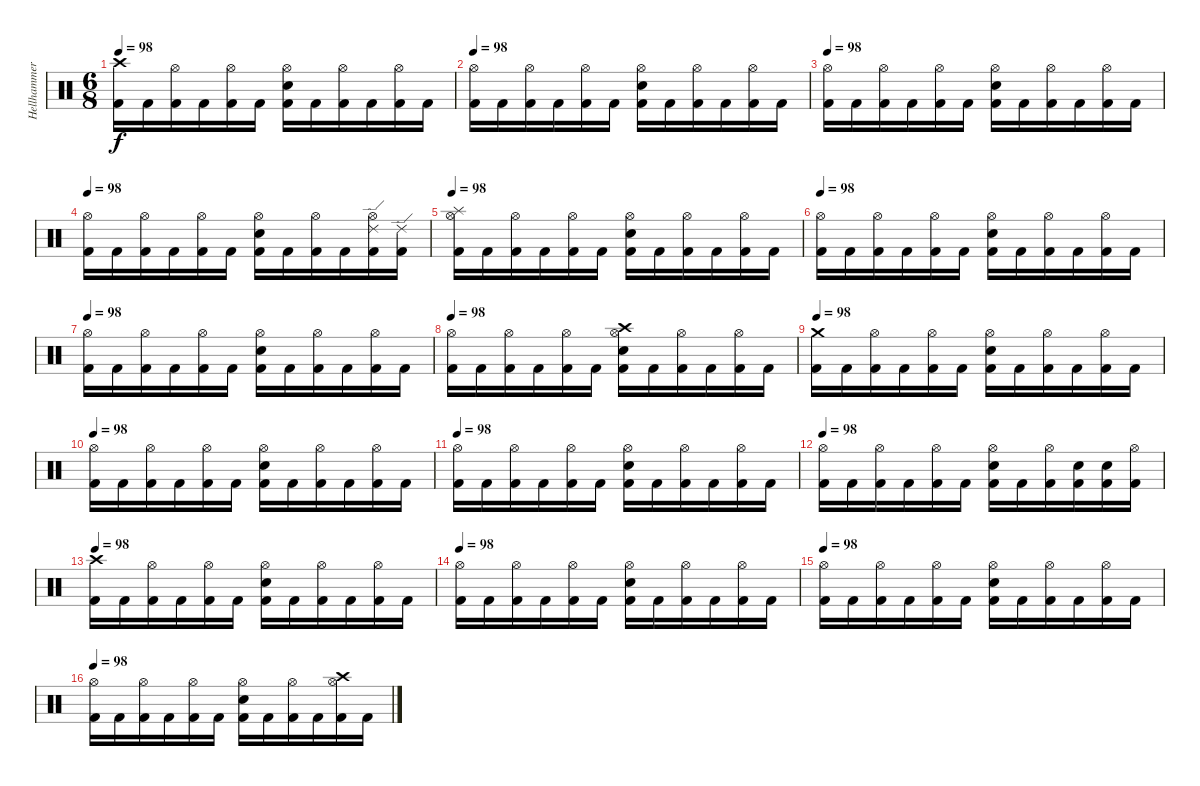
\track ("Hellhammer (Drums)" "Hellhammer") {instrument percussion}
\staff {score}
\articulation defaults
\ts (6 8)
\tempo 98
\clef neutral
\ks c
("Kick (hit) 2" "Crash high (hit)").16{dy f volume 14} "Kick (hit) 2".16 ("Kick (hit) 2" "Hi-Hat (open)").16 "Kick (hit) 2".16 ("Kick (hit) 2" "Hi-Hat (open)").16 "Kick (hit) 2".16 ("Kick (hit) 2" "Electric Snare (hit)" "Hi-Hat (open)").16 "Kick (hit) 2".16 ("Kick (hit) 2" "Hi-Hat (open)").16 "Kick (hit) 2".16 ("Kick (hit) 2" "Hi-Hat (open)").16 "Kick (hit) 2".16 |
\tempo 98
("Kick (hit) 2" "Hi-Hat (open)").16 "Kick (hit) 2".16 ("Kick (hit) 2" "Hi-Hat (open)").16 "Kick (hit) 2".16 ("Kick (hit) 2" "Hi-Hat (open)").16 "Kick (hit) 2".16 ("Kick (hit) 2" "Electric Snare (hit)" "Hi-Hat (open)").16 "Kick (hit) 2".16 ("Kick (hit) 2" "Hi-Hat (open)").16 "Kick (hit) 2".16 ("Kick (hit) 2" "Hi-Hat (open)").16 "Kick (hit) 2".16 |
\tempo 98
("Kick (hit) 2" "Hi-Hat (open)").16 "Kick (hit) 2".16 ("Kick (hit) 2" "Hi-Hat (open)").16 "Kick (hit) 2".16 ("Kick (hit) 2" "Hi-Hat (open)").16 "Kick (hit) 2".16 ("Kick (hit) 2" "Electric Snare (hit)" "Hi-Hat (open)").16 "Kick (hit) 2".16 ("Kick (hit) 2" "Hi-Hat (open)").16 "Kick (hit) 2".16 ("Kick (hit) 2" "Hi-Hat (open)").16 "Kick (hit) 2".16 |
\tempo 98
("Kick (hit) 2" "Hi-Hat (open)").16 "Kick (hit) 2".16 ("Kick (hit) 2" "Hi-Hat (open)").16 "Kick (hit) 2".16 ("Kick (hit) 2" "Hi-Hat (open)").16 "Kick (hit) 2".16 ("Kick (hit) 2" "Electric Snare (hit)" "Hi-Hat (open)").16 "Kick (hit) 2".16 ("Kick (hit) 2" "Hi-Hat (open)").16 "Kick (hit) 2".16 ("Kick (hit) 2" "Hi-Hat (open)" "Ride (edge) 2").16 ("Kick (hit) 2" "Ride (edge) 2").16 |
\tempo 98
("Kick (hit) 2" "Hi-Hat (open)" "Splash (hit)").16 "Kick (hit) 2".16 ("Kick (hit) 2" "Hi-Hat (open)").16 "Kick (hit) 2".16 ("Kick (hit) 2" "Hi-Hat (open)").16 "Kick (hit) 2".16 ("Kick (hit) 2" "Electric Snare (hit)" "Hi-Hat (open)").16 "Kick (hit) 2".16 ("Kick (hit) 2" "Hi-Hat (open)").16 "Kick (hit) 2".16 ("Kick (hit) 2" "Hi-Hat (open)").16 "Kick (hit) 2".16 |
\tempo 98
("Kick (hit) 2" "Hi-Hat (open)").16 "Kick (hit) 2".16 ("Kick (hit) 2" "Hi-Hat (open)").16 "Kick (hit) 2".16 ("Kick (hit) 2" "Hi-Hat (open)").16 "Kick (hit) 2".16 ("Kick (hit) 2" "Electric Snare (hit)" "Hi-Hat (open)").16 "Kick (hit) 2".16 ("Kick (hit) 2" "Hi-Hat (open)").16 "Kick (hit) 2".16 ("Kick (hit) 2" "Hi-Hat (open)").16 "Kick (hit) 2".16 |
\tempo 98
("Kick (hit) 2" "Hi-Hat (open)").16 "Kick (hit) 2".16 ("Kick (hit) 2" "Hi-Hat (open)").16 "Kick (hit) 2".16 ("Kick (hit) 2" "Hi-Hat (open)").16 "Kick (hit) 2".16 ("Kick (hit) 2" "Electric Snare (hit)" "Hi-Hat (open)").16 "Kick (hit) 2".16 ("Kick (hit) 2" "Hi-Hat (open)").16 "Kick (hit) 2".16 ("Kick (hit) 2" "Hi-Hat (open)").16 "Kick (hit) 2".16 |
\tempo 98
("Kick (hit) 2" "Hi-Hat (open)").16 "Kick (hit) 2".16 ("Kick (hit) 2" "Hi-Hat (open)").16 "Kick (hit) 2".16 ("Kick (hit) 2" "Hi-Hat (open)").16 "Kick (hit) 2".16 ("Kick (hit) 2" "Electric Snare (hit)" "Hi-Hat (open)" "Crash high (hit)").16 "Kick (hit) 2".16 ("Kick (hit) 2" "Hi-Hat (open)").16 "Kick (hit) 2".16 ("Kick (hit) 2" "Hi-Hat (open)").16 "Kick (hit) 2".16 |
\tempo 98
("Kick (hit) 2" "Crash medium (hit)").16 "Kick (hit) 2".16 ("Kick (hit) 2" "Hi-Hat (open)").16 "Kick (hit) 2".16 ("Kick (hit) 2" "Hi-Hat (open)").16 "Kick (hit) 2".16 ("Kick (hit) 2" "Electric Snare (hit)" "Hi-Hat (open)").16 "Kick (hit) 2".16 ("Kick (hit) 2" "Hi-Hat (open)").16 "Kick (hit) 2".16 ("Kick (hit) 2" "Hi-Hat (open)").16 "Kick (hit) 2".16 |
\tempo 98
("Kick (hit) 2" "Hi-Hat (open)").16 "Kick (hit) 2".16 ("Kick (hit) 2" "Hi-Hat (open)").16 "Kick (hit) 2".16 ("Kick (hit) 2" "Hi-Hat (open)").16 "Kick (hit) 2".16 ("Kick (hit) 2" "Electric Snare (hit)" "Hi-Hat (open)").16 "Kick (hit) 2".16 ("Kick (hit) 2" "Hi-Hat (open)").16 "Kick (hit) 2".16 ("Kick (hit) 2" "Hi-Hat (open)").16 "Kick (hit) 2".16 |
\tempo 98
("Kick (hit) 2" "Hi-Hat (open)").16 "Kick (hit) 2".16 ("Kick (hit) 2" "Hi-Hat (open)").16 "Kick (hit) 2".16 ("Kick (hit) 2" "Hi-Hat (open)").16 "Kick (hit) 2".16 ("Kick (hit) 2" "Electric Snare (hit)" "Hi-Hat (open)").16 "Kick (hit) 2".16 ("Kick (hit) 2" "Hi-Hat (open)").16 "Kick (hit) 2".16 ("Kick (hit) 2" "Hi-Hat (open)").16 "Kick (hit) 2".16 |
\tempo 98
("Kick (hit) 2" "Hi-Hat (open)").16 "Kick (hit) 2".16 ("Kick (hit) 2" "Hi-Hat (open)").16 "Kick (hit) 2".16 ("Kick (hit) 2" "Hi-Hat (open)").16 "Kick (hit) 2".16 ("Kick (hit) 2" "Electric Snare (hit)" "Hi-Hat (open)").16 "Kick (hit) 2".16 ("Kick (hit) 2" "Hi-Hat (open)").16 ("Kick (hit) 2" "Electric Snare (hit)").16 ("Kick (hit) 2" "Electric Snare (hit)").16 ("Kick (hit) 2" "Hi-Hat (open)").16 |
\tempo 98
("Kick (hit) 2" "Crash high (hit)").16 "Kick (hit) 2".16 ("Kick (hit) 2" "Hi-Hat (open)").16 "Kick (hit) 2".16 ("Kick (hit) 2" "Hi-Hat (open)").16 "Kick (hit) 2".16 ("Kick (hit) 2" "Electric Snare (hit)" "Hi-Hat (open)").16 "Kick (hit) 2".16 ("Kick (hit) 2" "Hi-Hat (open)").16 "Kick (hit) 2".16 ("Kick (hit) 2" "Hi-Hat (open)").16 "Kick (hit) 2".16 |
\tempo 98
("Kick (hit) 2" "Hi-Hat (open)").16 "Kick (hit) 2".16 ("Kick (hit) 2" "Hi-Hat (open)").16 "Kick (hit) 2".16 ("Kick (hit) 2" "Hi-Hat (open)").16 "Kick (hit) 2".16 ("Kick (hit) 2" "Electric Snare (hit)" "Hi-Hat (open)").16 "Kick (hit) 2".16 ("Kick (hit) 2" "Hi-Hat (open)").16 "Kick (hit) 2".16 ("Kick (hit) 2" "Hi-Hat (open)").16 "Kick (hit) 2".16 |
\tempo 98
("Kick (hit) 2" "Hi-Hat (open)").16 "Kick (hit) 2".16 ("Kick (hit) 2" "Hi-Hat (open)").16 "Kick (hit) 2".16 ("Kick (hit) 2" "Hi-Hat (open)").16 "Kick (hit) 2".16 ("Kick (hit) 2" "Electric Snare (hit)" "Hi-Hat (open)").16 "Kick (hit) 2".16 ("Kick (hit) 2" "Hi-Hat (open)").16 "Kick (hit) 2".16 ("Kick (hit) 2" "Hi-Hat (open)").16 "Kick (hit) 2".16 |
\tempo 98
("Kick (hit) 2" "Hi-Hat (open)").16 "Kick (hit) 2".16 ("Kick (hit) 2" "Hi-Hat (open)").16 "Kick (hit) 2".16 ("Kick (hit) 2" "Hi-Hat (open)").16 "Kick (hit) 2".16 ("Kick (hit) 2" "Electric Snare (hit)" "Hi-Hat (open)").16 "Kick (hit) 2".16 ("Kick (hit) 2" "Hi-Hat (open)").16 "Kick (hit) 2".16 ("Kick (hit) 2" "Hi-Hat (open)" "Crash high (hit)").16 "Kick (hit) 2".16
